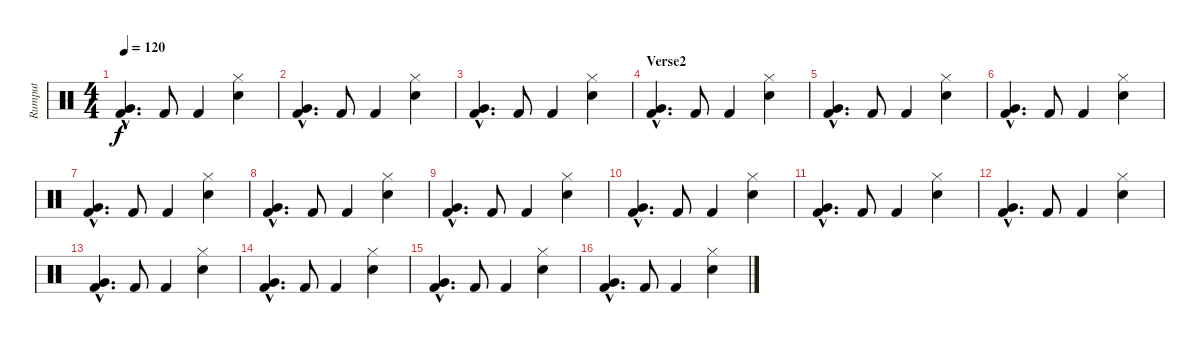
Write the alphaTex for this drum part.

\track ("Rumput" "Rumput") {instrument percussion}
\staff {score}
\articulation defaults
\ts (4 4)
\tempo 120
\clef neutral
\ks c
("Very Low Tom (hit)"{hac} "Kick (hit) 2"{hac}).4{d dy f} "Kick (hit) 2".8 "Kick (hit) 2".4 ("Hi-Hat (closed)" "Snare (hit) 2").4 |
("Very Low Tom (hit)"{hac} "Kick (hit) 2"{hac}).4{d} "Kick (hit) 2".8 "Kick (hit) 2".4 ("Hi-Hat (closed)" "Snare (hit) 2").4 |
("Very Low Tom (hit)"{hac} "Kick (hit) 2"{hac}).4{d} "Kick (hit) 2".8 "Kick (hit) 2".4 ("Hi-Hat (closed)" "Snare (hit) 2").4 |
\section ("" "Verse2")
("Very Low Tom (hit)"{hac} "Kick (hit) 2"{hac}).4{d} "Kick (hit) 2".8 "Kick (hit) 2".4 ("Hi-Hat (closed)" "Snare (hit) 2").4 |
("Very Low Tom (hit)"{hac} "Kick (hit) 2"{hac}).4{d} "Kick (hit) 2".8 "Kick (hit) 2".4 ("Hi-Hat (closed)" "Snare (hit) 2").4 |
("Very Low Tom (hit)"{hac} "Kick (hit) 2"{hac}).4{d} "Kick (hit) 2".8 "Kick (hit) 2".4 ("Hi-Hat (closed)" "Snare (hit) 2").4 |
("Very Low Tom (hit)"{hac} "Kick (hit) 2"{hac}).4{d} "Kick (hit) 2".8 "Kick (hit) 2".4 ("Hi-Hat (closed)" "Snare (hit) 2").4 |
("Very Low Tom (hit)"{hac} "Kick (hit) 2"{hac}).4{d} "Kick (hit) 2".8 "Kick (hit) 2".4 ("Hi-Hat (closed)" "Snare (hit) 2").4 |
("Very Low Tom (hit)"{hac} "Kick (hit) 2"{hac}).4{d} "Kick (hit) 2".8 "Kick (hit) 2".4 ("Hi-Hat (closed)" "Snare (hit) 2").4 |
("Very Low Tom (hit)"{hac} "Kick (hit) 2"{hac}).4{d} "Kick (hit) 2".8 "Kick (hit) 2".4 ("Hi-Hat (closed)" "Snare (hit) 2").4 |
("Very Low Tom (hit)"{hac} "Kick (hit) 2"{hac}).4{d} "Kick (hit) 2".8 "Kick (hit) 2".4 ("Hi-Hat (closed)" "Snare (hit) 2").4 |
("Very Low Tom (hit)"{hac} "Kick (hit) 2"{hac}).4{d} "Kick (hit) 2".8 "Kick (hit) 2".4 ("Hi-Hat (closed)" "Snare (hit) 2").4 |
("Very Low Tom (hit)"{hac} "Kick (hit) 2"{hac}).4{d} "Kick (hit) 2".8 "Kick (hit) 2".4 ("Hi-Hat (closed)" "Snare (hit) 2").4 |
("Very Low Tom (hit)"{hac} "Kick (hit) 2"{hac}).4{d} "Kick (hit) 2".8 "Kick (hit) 2".4 ("Hi-Hat (closed)" "Snare (hit) 2").4 |
("Very Low Tom (hit)"{hac} "Kick (hit) 2"{hac}).4{d} "Kick (hit) 2".8 "Kick (hit) 2".4 ("Hi-Hat (closed)" "Snare (hit) 2").4 |
("Very Low Tom (hit)"{hac} "Kick (hit) 2"{hac}).4{d} "Kick (hit) 2".8 "Kick (hit) 2".4 ("Hi-Hat (closed)" "Snare (hit) 2").4
